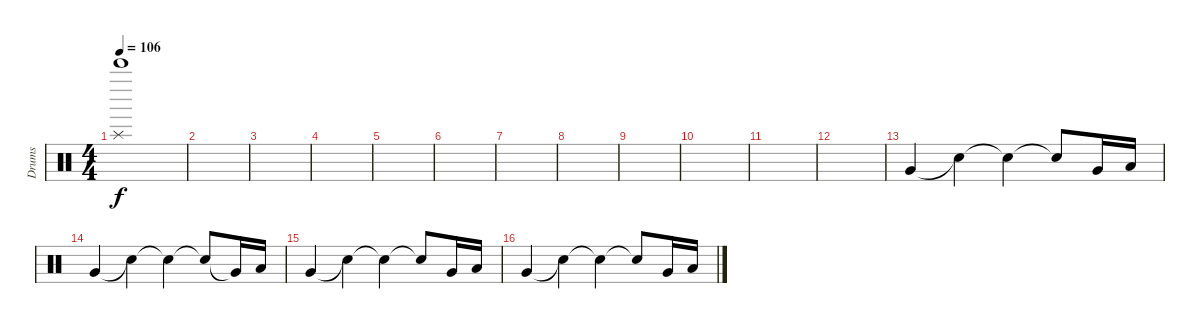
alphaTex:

\track ("Drums" "Drums") {instrument percussion}
\staff {score}
\articulation defaults
\ts (4 4)
\tempo 106
\clef neutral
\ks c
("Splash (hit)" "Bell Tree (hit)").1{dy f} |
|
|
|
|
|
|
|
|
|
|
|
"Very Low Tom (hit)".4 "Snare (hit)"{t}.4 "Snare (hit)"{t}.4 "Snare (hit)"{t}.8 "Very Low Tom (hit)".16 "Low Floor Tom (hit)".16 |
"Very Low Tom (hit)".4 "Snare (hit)"{t}.4 "Snare (hit)"{t}.4 "Snare (hit)"{t}.8 "Very Low Tom (hit)"{t}.16 "Low Floor Tom (hit)".16 |
"Very Low Tom (hit)".4 "Snare (hit)"{t}.4 "Snare (hit)"{t}.4 "Snare (hit)"{t}.8 "Very Low Tom (hit)".16 "Low Floor Tom (hit)".16 |
"Very Low Tom (hit)".4 "Snare (hit)"{t}.4 "Snare (hit)"{t}.4 "Snare (hit)"{t}.8 "Very Low Tom (hit)".16 "Low Floor Tom (hit)".16
